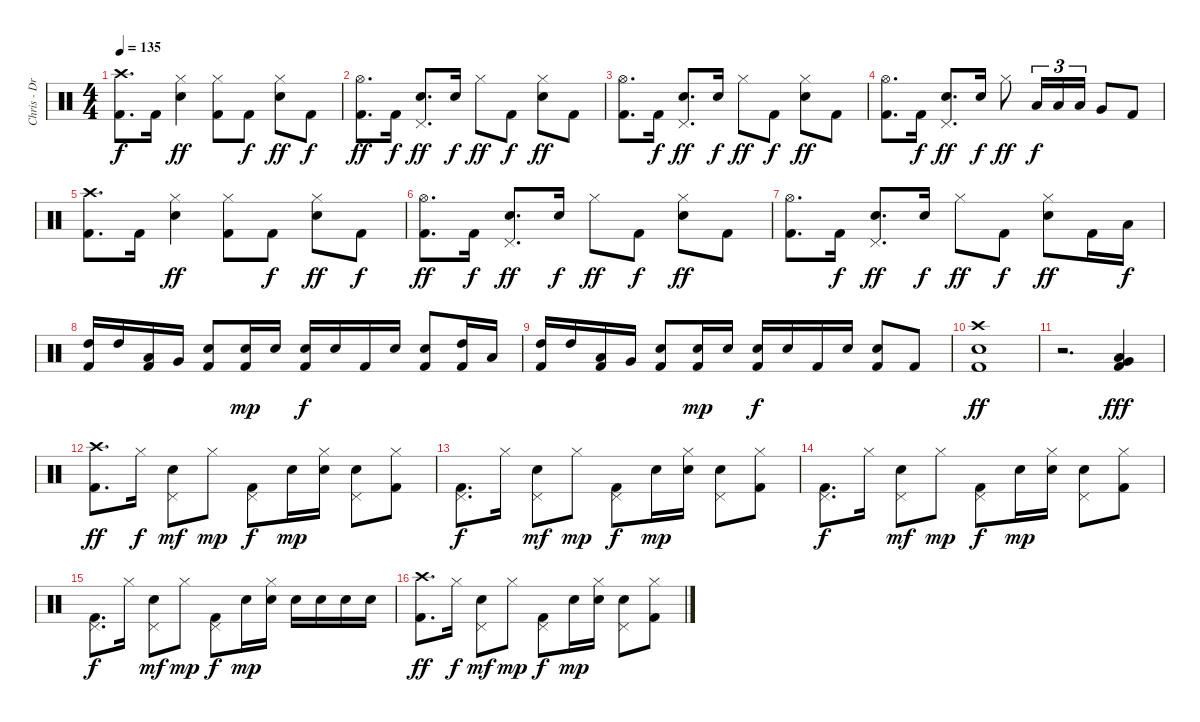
\track ("Chris - Drums" "Chris - Dr") {instrument percussion}
\staff {score}
\articulation defaults
\ts (4 4)
\tempo 135
\clef neutral
\ks c
("Crash high (hit)" "Kick (hit) 2").8{d dy f} "Kick (hit) 2".16 ("Hi-Hat (closed)" "Electric Snare (hit)").4{dy ff} ("Hi-Hat (closed)" "Kick (hit) 2").8 "Kick (hit) 2".8{dy f} ("Hi-Hat (closed)" "Electric Snare (hit)").8{dy ff} "Kick (hit) 2".8{dy f} |
("Hi-Hat (open)" "Kick (hit) 2").8{d dy ff} "Kick (hit) 2".16{dy f} ("Pedal Hi-Hat (hit)" "Electric Snare (hit)").8{d dy ff} "Electric Snare (hit)".16{dy f} "Hi-Hat (closed)".8{dy ff} "Kick (hit) 2".8{dy f} ("Hi-Hat (closed)" "Electric Snare (hit)").8{dy ff} "Kick (hit) 2".8 |
("Hi-Hat (open)" "Kick (hit) 2").8{d} "Kick (hit) 2".16{dy f} ("Pedal Hi-Hat (hit)" "Electric Snare (hit)").8{d dy ff} "Electric Snare (hit)".16{dy f} "Hi-Hat (closed)".8{dy ff} "Kick (hit) 2".8{dy f} ("Hi-Hat (closed)" "Electric Snare (hit)").8{dy ff} "Kick (hit) 2".8 |
("Hi-Hat (open)" "Kick (hit) 2").8{d} "Kick (hit) 2".16{dy f} ("Pedal Hi-Hat (hit)" "Electric Snare (hit)").8{d dy ff} "Electric Snare (hit)".16{dy f} "Hi-Hat (closed)".8{dy ff} "Low Tom (hit)".16{tu (3 2) dy f} "Low Tom (hit)".16{tu (3 2)} "Low Tom (hit)".16{tu (3 2)} "Very Low Tom (hit)".8 "Kick (hit) 2".8 |
("Crash high (hit)" "Kick (hit) 2").8{d} "Kick (hit) 2".16 ("Hi-Hat (closed)" "Electric Snare (hit)").4{dy ff} ("Hi-Hat (closed)" "Kick (hit) 2").8 "Kick (hit) 2".8{dy f} ("Hi-Hat (closed)" "Electric Snare (hit)").8{dy ff} "Kick (hit) 2".8{dy f} |
("Hi-Hat (open)" "Kick (hit) 2").8{d dy ff} "Kick (hit) 2".16{dy f} ("Pedal Hi-Hat (hit)" "Electric Snare (hit)").8{d dy ff} "Electric Snare (hit)".16{dy f} "Hi-Hat (closed)".8{dy ff} "Kick (hit) 2".8{dy f} ("Hi-Hat (closed)" "Electric Snare (hit)").8{dy ff} "Kick (hit) 2".8 |
("Hi-Hat (open)" "Kick (hit) 2").8{d} "Kick (hit) 2".16{dy f} ("Pedal Hi-Hat (hit)" "Electric Snare (hit)").8{d dy ff} "Electric Snare (hit)".16{dy f} "Hi-Hat (closed)".8{dy ff} "Kick (hit) 2".8{dy f} ("Hi-Hat (closed)" "Electric Snare (hit)").8{dy ff} "Kick (hit) 2".16 "Low Tom (hit)".16{dy f} |
("High Tom (hit)" "Kick (hit) 2").16 "High Tom (hit)".16 ("Low Tom (hit)" "Kick (hit) 2").16 "Very Low Tom (hit)".16 ("Electric Snare (hit)" "Kick (hit) 2").8 ("Electric Snare (hit)" "Kick (hit) 2").16{dy mp} "Electric Snare (hit)".16 ("Electric Snare (hit)" "Kick (hit) 2").16{dy f} "Electric Snare (hit)".16 "Kick (hit) 2".16 "Electric Snare (hit)".16 ("Electric Snare (hit)" "Kick (hit) 2").8 ("High Tom (hit)" "Kick (hit) 2").16 "Low Tom (hit)".16 |
("High Tom (hit)" "Kick (hit) 2").16 "High Tom (hit)".16 ("Low Tom (hit)" "Kick (hit) 2").16 "Very Low Tom (hit)".16 ("Electric Snare (hit)" "Kick (hit) 2").8 ("Electric Snare (hit)" "Kick (hit) 2").16{dy mp} "Electric Snare (hit)".16 ("Electric Snare (hit)" "Kick (hit) 2").16{dy f} "Electric Snare (hit)".16 "Kick (hit) 2".16 "Electric Snare (hit)".16 ("Electric Snare (hit)" "Kick (hit) 2").8 "Kick (hit) 2".8 |
("Crash high (hit)" "Electric Snare (hit)" "Kick (hit) 2").1{dy ff} |
r.2{d} ("Very Low Tom (hit)" "Low Floor Tom (hit)" "Kick (hit) 2").4{dy fff} |
("Crash high (hit)" "Kick (hit) 2").8{d dy ff} "Hi-Hat (closed)".16{dy f} ("Pedal Hi-Hat (hit)" "Electric Snare (hit)").8{dy mf} "Hi-Hat (closed)".8{dy mp} ("Pedal Hi-Hat (hit)" "Kick (hit) 2").8{dy f} "Electric Snare (hit)".16{dy mp} ("Hi-Hat (closed)" "Electric Snare (hit)").16 ("Pedal Hi-Hat (hit)" "Electric Snare (hit)").8 ("Hi-Hat (closed)" "Kick (hit) 2").8 |
("Pedal Hi-Hat (hit)" "Kick (hit) 2").8{d dy f} "Hi-Hat (closed)".16 ("Pedal Hi-Hat (hit)" "Electric Snare (hit)").8{dy mf} "Hi-Hat (closed)".8{dy mp} ("Pedal Hi-Hat (hit)" "Kick (hit) 2").8{dy f} "Electric Snare (hit)".16{dy mp} ("Hi-Hat (closed)" "Electric Snare (hit)").16 ("Pedal Hi-Hat (hit)" "Electric Snare (hit)").8 ("Hi-Hat (closed)" "Kick (hit) 2").8 |
("Pedal Hi-Hat (hit)" "Kick (hit) 2").8{d dy f} "Hi-Hat (closed)".16 ("Pedal Hi-Hat (hit)" "Electric Snare (hit)").8{dy mf} "Hi-Hat (closed)".8{dy mp} ("Pedal Hi-Hat (hit)" "Kick (hit) 2").8{dy f} "Electric Snare (hit)".16{dy mp} ("Hi-Hat (closed)" "Electric Snare (hit)").16 ("Pedal Hi-Hat (hit)" "Electric Snare (hit)").8 ("Hi-Hat (closed)" "Kick (hit) 2").8 |
("Pedal Hi-Hat (hit)" "Kick (hit) 2").8{d dy f} "Hi-Hat (closed)".16 ("Pedal Hi-Hat (hit)" "Electric Snare (hit)").8{dy mf} "Hi-Hat (closed)".8{dy mp} ("Pedal Hi-Hat (hit)" "Kick (hit) 2").8{dy f} "Electric Snare (hit)".16{dy mp} ("Hi-Hat (closed)" "Electric Snare (hit)").16 "Electric Snare (hit)".16 "Electric Snare (hit)".16 "Electric Snare (hit)".16 "Electric Snare (hit)".16 |
("Crash high (hit)" "Kick (hit) 2").8{d dy ff} "Hi-Hat (closed)".16{dy f} ("Pedal Hi-Hat (hit)" "Electric Snare (hit)").8{dy mf} "Hi-Hat (closed)".8{dy mp} ("Pedal Hi-Hat (hit)" "Kick (hit) 2").8{dy f} "Electric Snare (hit)".16{dy mp} ("Hi-Hat (closed)" "Electric Snare (hit)").16 ("Pedal Hi-Hat (hit)" "Electric Snare (hit)").8 ("Hi-Hat (closed)" "Kick (hit) 2").8
